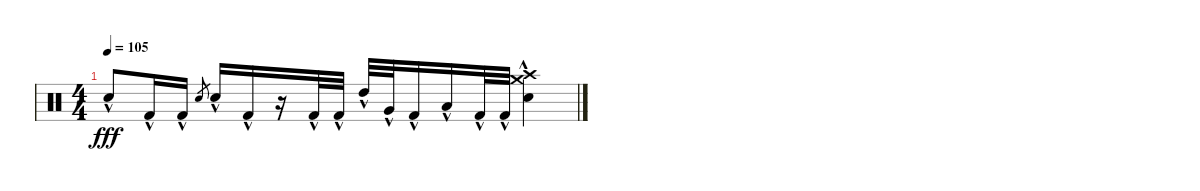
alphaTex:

\track "" {instrument percussion}
\staff {score}
\articulation defaults
\ts (4 4)
\tempo 105
\clef neutral
\ks c "Electric Snare (hit)"{hac}.8{dy fff} "Kick (hit) 2"{hac}.16 "Kick (hit) 2"{hac}.16 "Electric Snare (hit)".8{gr} "Electric Snare (hit)"{hac}.16 "Kick (hit) 2"{hac}.16
r.16 "Kick (hit) 2"{hac}.32 "Kick (hit) 2"{hac}.32 "High Tom (hit)"{hac}.32 "Very Low Tom (hit)"{hac}.32 "Kick (hit) 2"{hac}.16 "Low Tom (hit)"{hac}.16 "Kick (hit) 2"{hac}.32 "Kick (hit) 2"{hac}.32 ("Crash high (hit)" "Electric Snare (hit)"{hac} "Crash medium (hit)"{hac}).4
